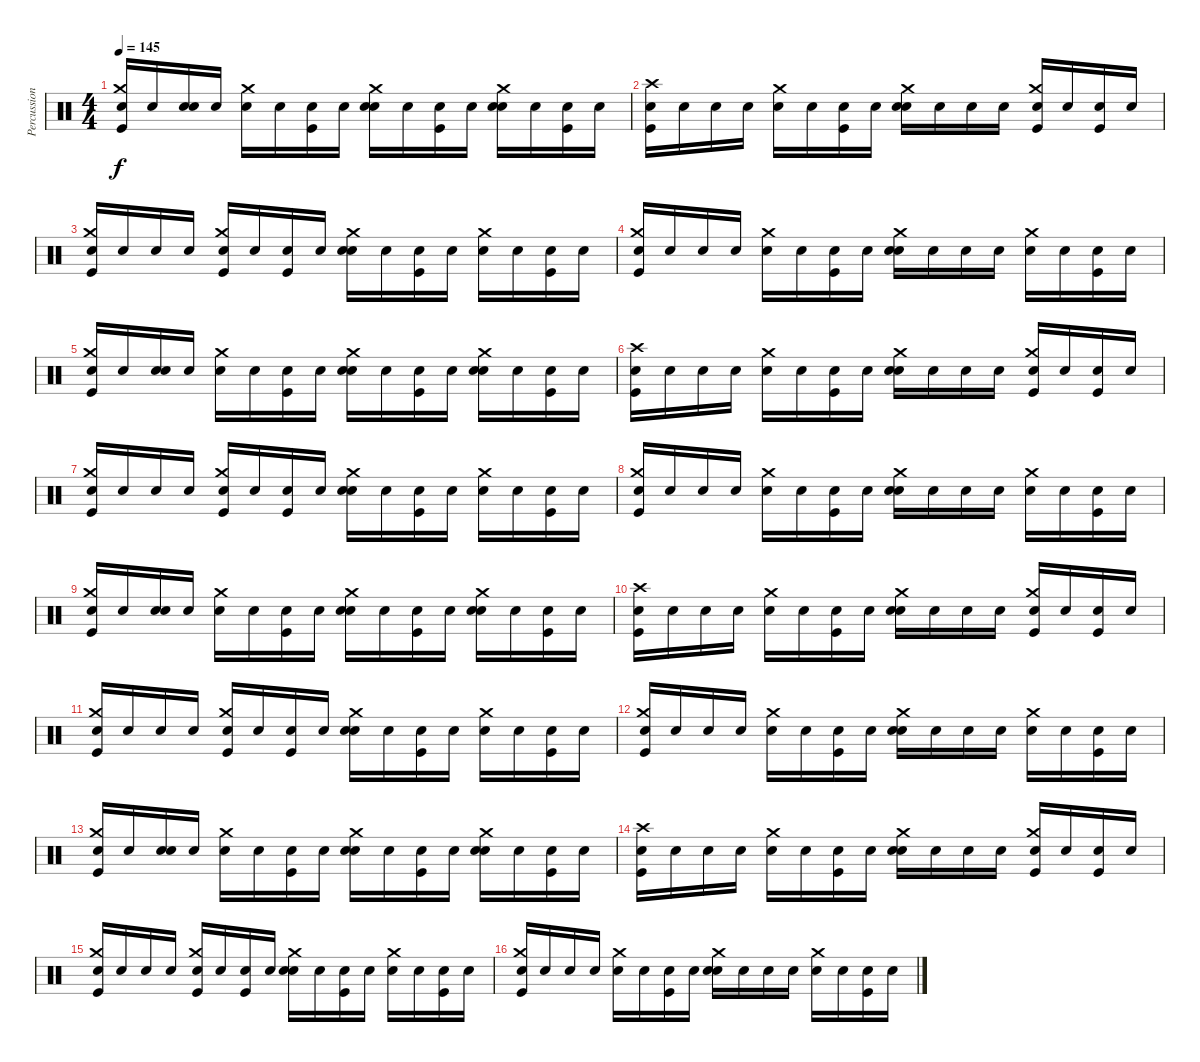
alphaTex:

\track ("Percussion" "Percussion") {instrument percussion}
\staff {score}
\articulation defaults
\ts (4 4)
\tempo 145
\clef neutral
\ks c
("Snare (hit)" "Crash medium (hit)" "Kick (hit)").16{dy f} "Snare (hit)".16 ("Snare (hit)" "Snare (hit) 2").16 "Snare (hit)".16 ("Snare (hit)" "Crash medium (hit)").16 "Snare (hit)".16 ("Snare (hit)" "Kick (hit)").16 "Snare (hit)".16 ("Snare (hit)" "Snare (hit) 2" "Crash medium (hit)").16 "Snare (hit)".16 ("Snare (hit)" "Kick (hit)").16 "Snare (hit)".16 ("Snare (hit)" "Snare (hit) 2" "Crash medium (hit)").16 "Snare (hit)".16 ("Snare (hit)" "Kick (hit)").16 "Snare (hit)".16 |
("Snare (hit)" "Crash high (hit)" "Kick (hit)").16 "Snare (hit)".16 "Snare (hit)".16 "Snare (hit)".16 ("Snare (hit)" "Crash medium (hit)").16 "Snare (hit)".16 ("Snare (hit)" "Kick (hit)").16 "Snare (hit)".16 ("Snare (hit)" "Crash medium (hit)" "Snare (hit) 2").16 "Snare (hit)".16 "Snare (hit)".16 "Snare (hit)".16 ("Snare (hit)" "Crash medium (hit)" "Kick (hit)").16 "Snare (hit)".16 ("Snare (hit)" "Kick (hit)").16 "Snare (hit)".16 |
("Snare (hit)" "Crash medium (hit)" "Kick (hit)").16 "Snare (hit)".16 "Snare (hit)".16 "Snare (hit)".16 ("Snare (hit)" "Crash medium (hit)" "Kick (hit)").16 "Snare (hit)".16 ("Snare (hit)" "Kick (hit)").16 "Snare (hit)".16 ("Snare (hit)" "Crash medium (hit)" "Snare (hit) 2").16 "Snare (hit)".16 ("Snare (hit)" "Kick (hit)").16 "Snare (hit)".16 ("Snare (hit)" "Crash medium (hit)").16 "Snare (hit)".16 ("Snare (hit)" "Kick (hit)").16 "Snare (hit)".16 |
("Snare (hit)" "Crash medium (hit)" "Kick (hit)").16 "Snare (hit)".16 "Snare (hit)".16 "Snare (hit)".16 ("Snare (hit)" "Crash medium (hit)").16 "Snare (hit)".16 ("Snare (hit)" "Kick (hit)").16 "Snare (hit)".16 ("Snare (hit)" "Crash medium (hit)" "Snare (hit) 2").16 "Snare (hit)".16 "Snare (hit)".16 "Snare (hit)".16 ("Snare (hit)" "Crash medium (hit)").16 "Snare (hit)".16 ("Snare (hit)" "Kick (hit)").16 "Snare (hit)".16 |
("Snare (hit)" "Crash medium (hit)" "Kick (hit)").16 "Snare (hit)".16 ("Snare (hit)" "Snare (hit) 2").16 "Snare (hit)".16 ("Snare (hit)" "Crash medium (hit)").16 "Snare (hit)".16 ("Snare (hit)" "Kick (hit)").16 "Snare (hit)".16 ("Snare (hit)" "Snare (hit) 2" "Crash medium (hit)").16 "Snare (hit)".16 ("Snare (hit)" "Kick (hit)").16 "Snare (hit)".16 ("Snare (hit)" "Snare (hit) 2" "Crash medium (hit)").16 "Snare (hit)".16 ("Snare (hit)" "Kick (hit)").16 "Snare (hit)".16 |
("Snare (hit)" "Crash high (hit)" "Kick (hit)").16 "Snare (hit)".16 "Snare (hit)".16 "Snare (hit)".16 ("Snare (hit)" "Crash medium (hit)").16 "Snare (hit)".16 ("Snare (hit)" "Kick (hit)").16 "Snare (hit)".16 ("Snare (hit)" "Crash medium (hit)" "Snare (hit) 2").16 "Snare (hit)".16 "Snare (hit)".16 "Snare (hit)".16 ("Snare (hit)" "Crash medium (hit)" "Kick (hit)").16 "Snare (hit)".16 ("Snare (hit)" "Kick (hit)").16 "Snare (hit)".16 |
("Snare (hit)" "Crash medium (hit)" "Kick (hit)").16 "Snare (hit)".16 "Snare (hit)".16 "Snare (hit)".16 ("Snare (hit)" "Crash medium (hit)" "Kick (hit)").16 "Snare (hit)".16 ("Snare (hit)" "Kick (hit)").16 "Snare (hit)".16 ("Snare (hit)" "Crash medium (hit)" "Snare (hit) 2").16 "Snare (hit)".16 ("Snare (hit)" "Kick (hit)").16 "Snare (hit)".16 ("Snare (hit)" "Crash medium (hit)").16 "Snare (hit)".16 ("Snare (hit)" "Kick (hit)").16 "Snare (hit)".16 |
("Snare (hit)" "Crash medium (hit)" "Kick (hit)").16 "Snare (hit)".16 "Snare (hit)".16 "Snare (hit)".16 ("Snare (hit)" "Crash medium (hit)").16 "Snare (hit)".16 ("Snare (hit)" "Kick (hit)").16 "Snare (hit)".16 ("Snare (hit)" "Crash medium (hit)" "Snare (hit) 2").16 "Snare (hit)".16 "Snare (hit)".16 "Snare (hit)".16 ("Snare (hit)" "Crash medium (hit)").16 "Snare (hit)".16 ("Snare (hit)" "Kick (hit)").16 "Snare (hit)".16 |
("Snare (hit)" "Crash medium (hit)" "Kick (hit)").16 "Snare (hit)".16 ("Snare (hit)" "Snare (hit) 2").16 "Snare (hit)".16 ("Snare (hit)" "Crash medium (hit)").16 "Snare (hit)".16 ("Snare (hit)" "Kick (hit)").16 "Snare (hit)".16 ("Snare (hit)" "Snare (hit) 2" "Crash medium (hit)").16 "Snare (hit)".16 ("Snare (hit)" "Kick (hit)").16 "Snare (hit)".16 ("Snare (hit)" "Snare (hit) 2" "Crash medium (hit)").16 "Snare (hit)".16 ("Snare (hit)" "Kick (hit)").16 "Snare (hit)".16 |
("Snare (hit)" "Crash high (hit)" "Kick (hit)").16 "Snare (hit)".16 "Snare (hit)".16 "Snare (hit)".16 ("Snare (hit)" "Crash medium (hit)").16 "Snare (hit)".16 ("Snare (hit)" "Kick (hit)").16 "Snare (hit)".16 ("Snare (hit)" "Crash medium (hit)" "Snare (hit) 2").16 "Snare (hit)".16 "Snare (hit)".16 "Snare (hit)".16 ("Snare (hit)" "Crash medium (hit)" "Kick (hit)").16 "Snare (hit)".16 ("Snare (hit)" "Kick (hit)").16 "Snare (hit)".16 |
("Snare (hit)" "Crash medium (hit)" "Kick (hit)").16 "Snare (hit)".16 "Snare (hit)".16 "Snare (hit)".16 ("Snare (hit)" "Crash medium (hit)" "Kick (hit)").16 "Snare (hit)".16 ("Snare (hit)" "Kick (hit)").16 "Snare (hit)".16 ("Snare (hit)" "Crash medium (hit)" "Snare (hit) 2").16 "Snare (hit)".16 ("Snare (hit)" "Kick (hit)").16 "Snare (hit)".16 ("Snare (hit)" "Crash medium (hit)").16 "Snare (hit)".16 ("Snare (hit)" "Kick (hit)").16 "Snare (hit)".16 |
("Snare (hit)" "Crash medium (hit)" "Kick (hit)").16 "Snare (hit)".16 "Snare (hit)".16 "Snare (hit)".16 ("Snare (hit)" "Crash medium (hit)").16 "Snare (hit)".16 ("Snare (hit)" "Kick (hit)").16 "Snare (hit)".16 ("Snare (hit)" "Crash medium (hit)" "Snare (hit) 2").16 "Snare (hit)".16 "Snare (hit)".16 "Snare (hit)".16 ("Snare (hit)" "Crash medium (hit)").16 "Snare (hit)".16 ("Snare (hit)" "Kick (hit)").16 "Snare (hit)".16 |
("Snare (hit)" "Crash medium (hit)" "Kick (hit)").16 "Snare (hit)".16 ("Snare (hit)" "Snare (hit) 2").16 "Snare (hit)".16 ("Snare (hit)" "Crash medium (hit)").16 "Snare (hit)".16 ("Snare (hit)" "Kick (hit)").16 "Snare (hit)".16 ("Snare (hit)" "Snare (hit) 2" "Crash medium (hit)").16 "Snare (hit)".16 ("Snare (hit)" "Kick (hit)").16 "Snare (hit)".16 ("Snare (hit)" "Snare (hit) 2" "Crash medium (hit)").16 "Snare (hit)".16 ("Snare (hit)" "Kick (hit)").16 "Snare (hit)".16 |
("Snare (hit)" "Crash high (hit)" "Kick (hit)").16 "Snare (hit)".16 "Snare (hit)".16 "Snare (hit)".16 ("Snare (hit)" "Crash medium (hit)").16 "Snare (hit)".16 ("Snare (hit)" "Kick (hit)").16 "Snare (hit)".16 ("Snare (hit)" "Crash medium (hit)" "Snare (hit) 2").16 "Snare (hit)".16 "Snare (hit)".16 "Snare (hit)".16 ("Snare (hit)" "Crash medium (hit)" "Kick (hit)").16 "Snare (hit)".16 ("Snare (hit)" "Kick (hit)").16 "Snare (hit)".16 |
("Snare (hit)" "Crash medium (hit)" "Kick (hit)").16 "Snare (hit)".16 "Snare (hit)".16 "Snare (hit)".16 ("Snare (hit)" "Crash medium (hit)" "Kick (hit)").16 "Snare (hit)".16 ("Snare (hit)" "Kick (hit)").16 "Snare (hit)".16 ("Snare (hit)" "Crash medium (hit)" "Snare (hit) 2").16 "Snare (hit)".16 ("Snare (hit)" "Kick (hit)").16 "Snare (hit)".16 ("Snare (hit)" "Crash medium (hit)").16 "Snare (hit)".16 ("Snare (hit)" "Kick (hit)").16 "Snare (hit)".16 |
("Snare (hit)" "Crash medium (hit)" "Kick (hit)").16 "Snare (hit)".16 "Snare (hit)".16 "Snare (hit)".16 ("Snare (hit)" "Crash medium (hit)").16 "Snare (hit)".16 ("Snare (hit)" "Kick (hit)").16 "Snare (hit)".16 ("Snare (hit)" "Crash medium (hit)" "Snare (hit) 2").16 "Snare (hit)".16 "Snare (hit)".16 "Snare (hit)".16 ("Snare (hit)" "Crash medium (hit)").16 "Snare (hit)".16 ("Snare (hit)" "Kick (hit)").16 "Snare (hit)".16
